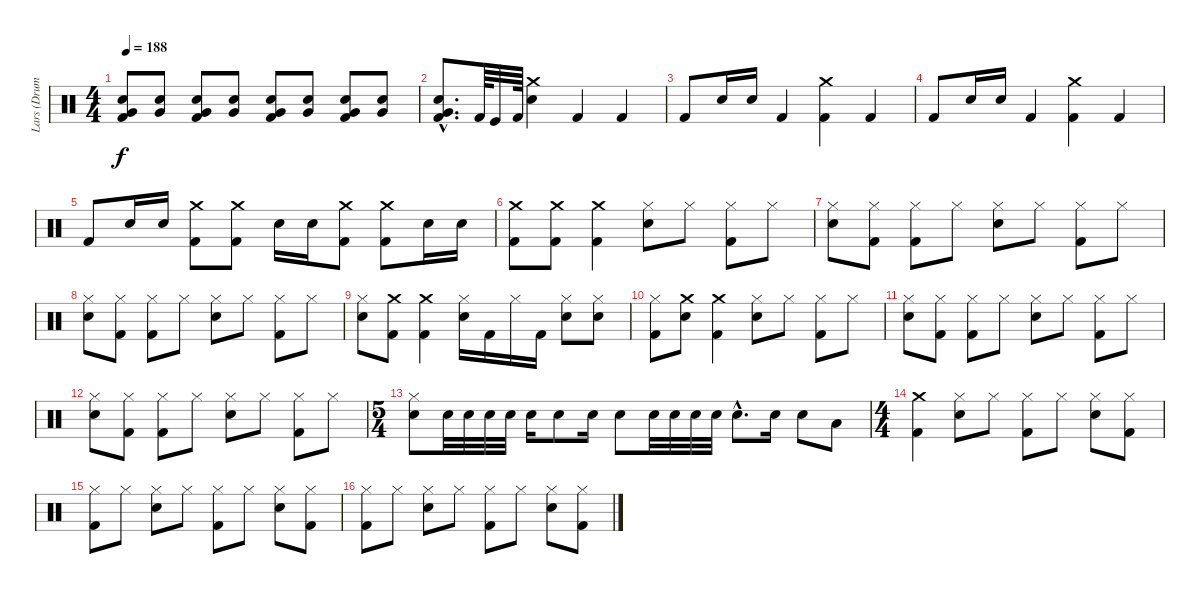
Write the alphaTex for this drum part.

\track ("Lars (Drums)" "Lars (Drum") {instrument percussion}
\staff {score}
\articulation defaults
\ts (4 4)
\tempo 188
\clef neutral
\ks c
("Snare (hit) 2" "Very Low Tom (hit)" "Kick (hit) 2").8{dy f} ("Snare (hit) 2" "Very Low Tom (hit)").8 ("Snare (hit) 2" "Very Low Tom (hit)" "Kick (hit) 2").8 ("Snare (hit) 2" "Very Low Tom (hit)").8 ("Snare (hit) 2" "Very Low Tom (hit)" "Kick (hit) 2").8 ("Snare (hit) 2" "Very Low Tom (hit)").8 ("Snare (hit) 2" "Very Low Tom (hit)" "Kick (hit) 2").8 ("Snare (hit) 2" "Very Low Tom (hit)").8 |
("Kick (hit) 2"{hac} "Snare (hit) 2"{hac} "Very Low Tom (hit)"{hac}).8{d} "Kick (hit) 2".64 "Kick (hit)".32 "Kick (hit) 2".64 ("Crash medium (hit)" "Snare (hit) 2").4 "Kick (hit) 2".4 "Kick (hit) 2".4 |
"Kick (hit) 2".8 "Snare (hit) 2".16 "Snare (hit) 2".16 "Kick (hit) 2".4 ("Crash medium (hit)" "Kick (hit) 2").4 "Kick (hit) 2".4 |
"Kick (hit) 2".8 "Snare (hit) 2".16 "Snare (hit) 2".16 "Kick (hit) 2".4 ("Crash medium (hit)" "Kick (hit) 2").4 "Kick (hit) 2".4 |
"Kick (hit) 2".8 "Snare (hit) 2".16 "Snare (hit) 2".16 ("Kick (hit) 2" "Crash medium (hit)").8 ("Kick (hit) 2" "Crash medium (hit)").8 "Snare (hit) 2".16 "Snare (hit) 2".16 ("Kick (hit) 2" "Crash medium (hit)").8 ("Crash medium (hit)" "Kick (hit) 2").8 "Snare (hit) 2".16 "Snare (hit) 2".16 |
("Kick (hit) 2" "Crash medium (hit)").8 ("Kick (hit) 2" "Crash medium (hit)").8 ("Kick (hit) 2" "Crash medium (hit)").4 ("Hi-Hat (closed)" "Snare (hit) 2").8 "Hi-Hat (closed)".8 ("Kick (hit) 2" "Hi-Hat (closed)").8 "Hi-Hat (closed)".8 |
("Hi-Hat (closed)" "Snare (hit) 2").8 ("Kick (hit) 2" "Hi-Hat (closed)").8 ("Hi-Hat (closed)" "Kick (hit) 2").8 "Hi-Hat (closed)".8 ("Hi-Hat (closed)" "Snare (hit) 2").8 "Hi-Hat (closed)".8 ("Hi-Hat (closed)" "Kick (hit) 2").8 "Hi-Hat (closed)".8 |
("Hi-Hat (closed)" "Snare (hit) 2").8 ("Kick (hit) 2" "Hi-Hat (closed)").8 ("Hi-Hat (closed)" "Kick (hit) 2").8 "Hi-Hat (closed)".8 ("Hi-Hat (closed)" "Snare (hit) 2").8 "Hi-Hat (closed)".8 ("Hi-Hat (closed)" "Kick (hit) 2").8 "Hi-Hat (closed)".8 |
("Hi-Hat (closed)" "Snare (hit) 2").8 ("Kick (hit) 2" "Crash medium (hit)").8 ("Kick (hit) 2" "Crash medium (hit)").4 ("Hi-Hat (closed)" "Snare (hit) 2").16 "Kick (hit) 2".16 "Hi-Hat (closed)".16 "Kick (hit) 2".16 ("Snare (hit) 2" "Hi-Hat (closed)").8 ("Snare (hit) 2" "Hi-Hat (closed)").8 |
("Kick (hit) 2" "Hi-Hat (closed)").8 ("Crash medium (hit)" "Snare (hit) 2").8 ("Kick (hit) 2" "Crash medium (hit)").4 ("Hi-Hat (closed)" "Snare (hit) 2").8 "Hi-Hat (closed)".8 ("Kick (hit) 2" "Hi-Hat (closed)").8 "Hi-Hat (closed)".8 |
("Hi-Hat (closed)" "Snare (hit) 2").8 ("Kick (hit) 2" "Hi-Hat (closed)").8 ("Hi-Hat (closed)" "Kick (hit) 2").8 "Hi-Hat (closed)".8 ("Hi-Hat (closed)" "Snare (hit) 2").8 "Hi-Hat (closed)".8 ("Hi-Hat (closed)" "Kick (hit) 2").8 "Hi-Hat (closed)".8 |
("Hi-Hat (closed)" "Snare (hit) 2").8 ("Kick (hit) 2" "Hi-Hat (closed)").8 ("Hi-Hat (closed)" "Kick (hit) 2").8 "Hi-Hat (closed)".8 ("Hi-Hat (closed)" "Snare (hit) 2").8 "Hi-Hat (closed)".8 ("Hi-Hat (closed)" "Kick (hit) 2").8 "Hi-Hat (closed)".8 |
\ts (5 4)
("Snare (hit) 2" "Hi-Hat (closed)").8 "Snare (hit) 2".32 "Snare (hit) 2".32 "Snare (hit) 2".32 "Snare (hit) 2".32 "Snare (hit) 2".16 "Snare (hit) 2".8 "Snare (hit) 2".16 "Snare (hit) 2".8 "Snare (hit) 2".32 "Snare (hit) 2".32 "Snare (hit) 2".32 "Snare (hit) 2".32 "Snare (hit) 2"{hac}.8{d} "Snare (hit) 2".16 "Snare (hit) 2".8 "Low Tom (hit)".8 |
\ts (4 4)
("Kick (hit) 2" "Crash medium (hit)").4 ("Snare (hit) 2" "Hi-Hat (closed)").8 "Hi-Hat (closed)".8 ("Hi-Hat (closed)" "Kick (hit) 2").8 "Hi-Hat (closed)".8 ("Snare (hit) 2" "Hi-Hat (closed)").8 ("Kick (hit) 2" "Hi-Hat (closed)").8 |
("Hi-Hat (closed)" "Kick (hit) 2").8 "Hi-Hat (closed)".8 ("Snare (hit) 2" "Hi-Hat (closed)").8 "Hi-Hat (closed)".8 ("Hi-Hat (closed)" "Kick (hit) 2").8 "Hi-Hat (closed)".8 ("Snare (hit) 2" "Hi-Hat (closed)").8 ("Kick (hit) 2" "Hi-Hat (closed)").8 |
("Hi-Hat (closed)" "Kick (hit) 2").8 "Hi-Hat (closed)".8 ("Snare (hit) 2" "Hi-Hat (closed)").8 "Hi-Hat (closed)".8 ("Hi-Hat (closed)" "Kick (hit) 2").8 "Hi-Hat (closed)".8 ("Snare (hit) 2" "Hi-Hat (closed)").8 ("Kick (hit) 2" "Hi-Hat (closed)").8
